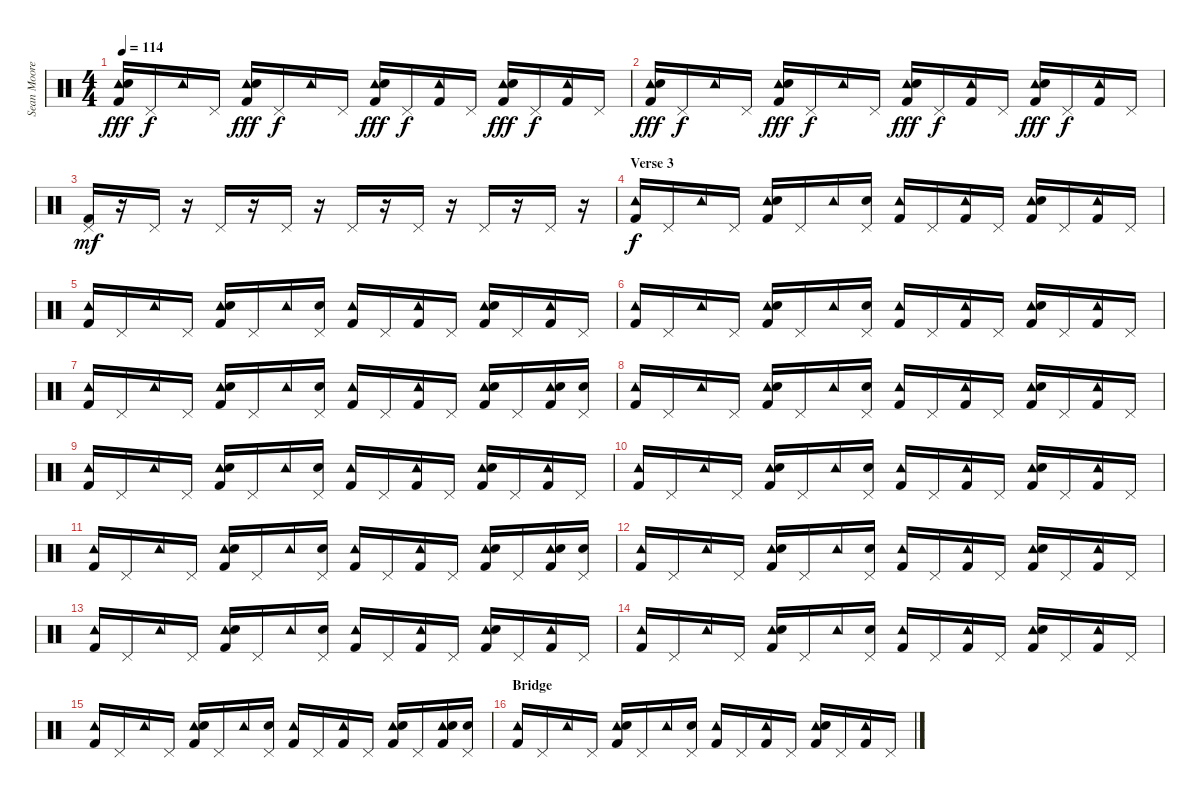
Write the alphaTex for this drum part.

\track ("Sean Moore" "Sean Moore") {instrument percussion}
\staff {score}
\articulation defaults
\ts (4 4)
\tempo 114
\clef neutral
\ks c
("Tambourine (hit)" "Snare (hit) 2" "Kick (hit) 2").16{dy fff} "Pedal Hi-Hat (hit)".16{dy f} "Tambourine (hit)".16 "Pedal Hi-Hat (hit)".16 ("Tambourine (hit)" "Snare (hit) 2" "Kick (hit) 2").16{dy fff} "Pedal Hi-Hat (hit)".16{dy f} "Tambourine (hit)".16 "Pedal Hi-Hat (hit)".16 ("Tambourine (hit)" "Snare (hit) 2" "Kick (hit) 2").16{dy fff} "Pedal Hi-Hat (hit)".16{dy f} ("Tambourine (hit)" "Kick (hit) 2").16 "Pedal Hi-Hat (hit)".16 ("Tambourine (hit)" "Snare (hit) 2" "Kick (hit) 2").16{dy fff} "Pedal Hi-Hat (hit)".16{dy f} ("Tambourine (hit)" "Kick (hit) 2").16 "Pedal Hi-Hat (hit)".16 |
("Tambourine (hit)" "Snare (hit) 2" "Kick (hit) 2").16{dy fff} "Pedal Hi-Hat (hit)".16{dy f} "Tambourine (hit)".16 "Pedal Hi-Hat (hit)".16 ("Tambourine (hit)" "Snare (hit) 2" "Kick (hit) 2").16{dy fff} "Pedal Hi-Hat (hit)".16{dy f} "Tambourine (hit)".16 "Pedal Hi-Hat (hit)".16 ("Tambourine (hit)" "Snare (hit) 2" "Kick (hit) 2").16{dy fff} "Pedal Hi-Hat (hit)".16{dy f} ("Tambourine (hit)" "Kick (hit) 2").16 "Pedal Hi-Hat (hit)".16 ("Tambourine (hit)" "Snare (hit) 2" "Kick (hit) 2").16{dy fff} "Pedal Hi-Hat (hit)".16{dy f} ("Tambourine (hit)" "Kick (hit) 2").16 "Pedal Hi-Hat (hit)".16 |
("Pedal Hi-Hat (hit)" "Kick (hit) 2").16{dy mf} r.16 "Pedal Hi-Hat (hit)".16 r.16 "Pedal Hi-Hat (hit)".16 r.16 "Pedal Hi-Hat (hit)".16 r.16 "Pedal Hi-Hat (hit)".16 r.16 "Pedal Hi-Hat (hit)".16 r.16 "Pedal Hi-Hat (hit)".16 r.16 "Pedal Hi-Hat (hit)".16 r.16 |
\section ("" "Verse 3")
("Tambourine (hit)" "Kick (hit) 2").16{dy f} "Pedal Hi-Hat (hit)".16 "Tambourine (hit)".16 "Pedal Hi-Hat (hit)".16 ("Tambourine (hit)" "Snare (hit) 2" "Kick (hit) 2").16 "Pedal Hi-Hat (hit)".16 "Tambourine (hit)".16 ("Snare (hit) 2" "Pedal Hi-Hat (hit)").16 ("Tambourine (hit)" "Kick (hit) 2").16 "Pedal Hi-Hat (hit)".16 ("Tambourine (hit)" "Kick (hit) 2").16 "Pedal Hi-Hat (hit)".16 ("Tambourine (hit)" "Snare (hit) 2" "Kick (hit) 2").16 "Pedal Hi-Hat (hit)".16 ("Tambourine (hit)" "Kick (hit) 2").16 "Pedal Hi-Hat (hit)".16 |
("Tambourine (hit)" "Kick (hit) 2").16 "Pedal Hi-Hat (hit)".16 "Tambourine (hit)".16 "Pedal Hi-Hat (hit)".16 ("Tambourine (hit)" "Snare (hit) 2" "Kick (hit) 2").16 "Pedal Hi-Hat (hit)".16 "Tambourine (hit)".16 ("Snare (hit) 2" "Pedal Hi-Hat (hit)").16 ("Tambourine (hit)" "Kick (hit) 2").16 "Pedal Hi-Hat (hit)".16 ("Tambourine (hit)" "Kick (hit) 2").16 "Pedal Hi-Hat (hit)".16 ("Tambourine (hit)" "Snare (hit) 2" "Kick (hit) 2").16 "Pedal Hi-Hat (hit)".16 ("Tambourine (hit)" "Kick (hit) 2").16 "Pedal Hi-Hat (hit)".16 |
("Tambourine (hit)" "Kick (hit) 2").16 "Pedal Hi-Hat (hit)".16 "Tambourine (hit)".16 "Pedal Hi-Hat (hit)".16 ("Tambourine (hit)" "Snare (hit) 2" "Kick (hit) 2").16 "Pedal Hi-Hat (hit)".16 "Tambourine (hit)".16 ("Snare (hit) 2" "Pedal Hi-Hat (hit)").16 ("Tambourine (hit)" "Kick (hit) 2").16 "Pedal Hi-Hat (hit)".16 ("Tambourine (hit)" "Kick (hit) 2").16 "Pedal Hi-Hat (hit)".16 ("Tambourine (hit)" "Snare (hit) 2" "Kick (hit) 2").16 "Pedal Hi-Hat (hit)".16 ("Tambourine (hit)" "Kick (hit) 2").16 "Pedal Hi-Hat (hit)".16 |
("Tambourine (hit)" "Kick (hit) 2").16 "Pedal Hi-Hat (hit)".16 "Tambourine (hit)".16 "Pedal Hi-Hat (hit)".16 ("Tambourine (hit)" "Snare (hit) 2" "Kick (hit) 2").16 "Pedal Hi-Hat (hit)".16 "Tambourine (hit)".16 ("Snare (hit) 2" "Pedal Hi-Hat (hit)").16 ("Tambourine (hit)" "Kick (hit) 2").16 "Pedal Hi-Hat (hit)".16 ("Tambourine (hit)" "Kick (hit) 2").16 "Pedal Hi-Hat (hit)".16 ("Tambourine (hit)" "Snare (hit) 2" "Kick (hit) 2").16 "Pedal Hi-Hat (hit)".16 ("Tambourine (hit)" "Snare (hit) 2" "Kick (hit) 2").16 ("Snare (hit) 2" "Pedal Hi-Hat (hit)").16 |
("Tambourine (hit)" "Kick (hit) 2").16 "Pedal Hi-Hat (hit)".16 "Tambourine (hit)".16 "Pedal Hi-Hat (hit)".16 ("Tambourine (hit)" "Snare (hit) 2" "Kick (hit) 2").16 "Pedal Hi-Hat (hit)".16 "Tambourine (hit)".16 ("Snare (hit) 2" "Pedal Hi-Hat (hit)").16 ("Tambourine (hit)" "Kick (hit) 2").16 "Pedal Hi-Hat (hit)".16 ("Tambourine (hit)" "Kick (hit) 2").16 "Pedal Hi-Hat (hit)".16 ("Tambourine (hit)" "Snare (hit) 2" "Kick (hit) 2").16 "Pedal Hi-Hat (hit)".16 ("Tambourine (hit)" "Kick (hit) 2").16 "Pedal Hi-Hat (hit)".16 |
("Tambourine (hit)" "Kick (hit) 2").16 "Pedal Hi-Hat (hit)".16 "Tambourine (hit)".16 "Pedal Hi-Hat (hit)".16 ("Tambourine (hit)" "Snare (hit) 2" "Kick (hit) 2").16 "Pedal Hi-Hat (hit)".16 "Tambourine (hit)".16 ("Snare (hit) 2" "Pedal Hi-Hat (hit)").16 ("Tambourine (hit)" "Kick (hit) 2").16 "Pedal Hi-Hat (hit)".16 ("Tambourine (hit)" "Kick (hit) 2").16 "Pedal Hi-Hat (hit)".16 ("Tambourine (hit)" "Snare (hit) 2" "Kick (hit) 2").16 "Pedal Hi-Hat (hit)".16 ("Tambourine (hit)" "Kick (hit) 2").16 "Pedal Hi-Hat (hit)".16 |
("Tambourine (hit)" "Kick (hit) 2").16 "Pedal Hi-Hat (hit)".16 "Tambourine (hit)".16 "Pedal Hi-Hat (hit)".16 ("Tambourine (hit)" "Snare (hit) 2" "Kick (hit) 2").16 "Pedal Hi-Hat (hit)".16 "Tambourine (hit)".16 ("Snare (hit) 2" "Pedal Hi-Hat (hit)").16 ("Tambourine (hit)" "Kick (hit) 2").16 "Pedal Hi-Hat (hit)".16 ("Tambourine (hit)" "Kick (hit) 2").16 "Pedal Hi-Hat (hit)".16 ("Tambourine (hit)" "Snare (hit) 2" "Kick (hit) 2").16 "Pedal Hi-Hat (hit)".16 ("Tambourine (hit)" "Kick (hit) 2").16 "Pedal Hi-Hat (hit)".16 |
("Tambourine (hit)" "Kick (hit) 2").16 "Pedal Hi-Hat (hit)".16 "Tambourine (hit)".16 "Pedal Hi-Hat (hit)".16 ("Tambourine (hit)" "Snare (hit) 2" "Kick (hit) 2").16 "Pedal Hi-Hat (hit)".16 "Tambourine (hit)".16 ("Snare (hit) 2" "Pedal Hi-Hat (hit)").16 ("Tambourine (hit)" "Kick (hit) 2").16 "Pedal Hi-Hat (hit)".16 ("Tambourine (hit)" "Kick (hit) 2").16 "Pedal Hi-Hat (hit)".16 ("Tambourine (hit)" "Snare (hit) 2" "Kick (hit) 2").16 "Pedal Hi-Hat (hit)".16 ("Tambourine (hit)" "Snare (hit) 2" "Kick (hit) 2").16 ("Snare (hit) 2" "Pedal Hi-Hat (hit)").16 |
("Tambourine (hit)" "Kick (hit) 2").16 "Pedal Hi-Hat (hit)".16 "Tambourine (hit)".16 "Pedal Hi-Hat (hit)".16 ("Tambourine (hit)" "Snare (hit) 2" "Kick (hit) 2").16 "Pedal Hi-Hat (hit)".16 "Tambourine (hit)".16 ("Snare (hit) 2" "Pedal Hi-Hat (hit)").16 ("Tambourine (hit)" "Kick (hit) 2").16 "Pedal Hi-Hat (hit)".16 ("Tambourine (hit)" "Kick (hit) 2").16 "Pedal Hi-Hat (hit)".16 ("Tambourine (hit)" "Snare (hit) 2" "Kick (hit) 2").16 "Pedal Hi-Hat (hit)".16 ("Tambourine (hit)" "Kick (hit) 2").16 "Pedal Hi-Hat (hit)".16 |
("Tambourine (hit)" "Kick (hit) 2").16 "Pedal Hi-Hat (hit)".16 "Tambourine (hit)".16 "Pedal Hi-Hat (hit)".16 ("Tambourine (hit)" "Snare (hit) 2" "Kick (hit) 2").16 "Pedal Hi-Hat (hit)".16 "Tambourine (hit)".16 ("Snare (hit) 2" "Pedal Hi-Hat (hit)").16 ("Tambourine (hit)" "Kick (hit) 2").16 "Pedal Hi-Hat (hit)".16 ("Tambourine (hit)" "Kick (hit) 2").16 "Pedal Hi-Hat (hit)".16 ("Tambourine (hit)" "Snare (hit) 2" "Kick (hit) 2").16 "Pedal Hi-Hat (hit)".16 ("Tambourine (hit)" "Kick (hit) 2").16 "Pedal Hi-Hat (hit)".16 |
("Tambourine (hit)" "Kick (hit) 2").16 "Pedal Hi-Hat (hit)".16 "Tambourine (hit)".16 "Pedal Hi-Hat (hit)".16 ("Tambourine (hit)" "Snare (hit) 2" "Kick (hit) 2").16 "Pedal Hi-Hat (hit)".16 "Tambourine (hit)".16 ("Snare (hit) 2" "Pedal Hi-Hat (hit)").16 ("Tambourine (hit)" "Kick (hit) 2").16 "Pedal Hi-Hat (hit)".16 ("Tambourine (hit)" "Kick (hit) 2").16 "Pedal Hi-Hat (hit)".16 ("Tambourine (hit)" "Snare (hit) 2" "Kick (hit) 2").16 "Pedal Hi-Hat (hit)".16 ("Tambourine (hit)" "Kick (hit) 2").16 "Pedal Hi-Hat (hit)".16 |
("Tambourine (hit)" "Kick (hit) 2").16 "Pedal Hi-Hat (hit)".16 "Tambourine (hit)".16 "Pedal Hi-Hat (hit)".16 ("Tambourine (hit)" "Snare (hit) 2" "Kick (hit) 2").16 "Pedal Hi-Hat (hit)".16 "Tambourine (hit)".16 ("Snare (hit) 2" "Pedal Hi-Hat (hit)").16 ("Tambourine (hit)" "Kick (hit) 2").16 "Pedal Hi-Hat (hit)".16 ("Tambourine (hit)" "Kick (hit) 2").16 "Pedal Hi-Hat (hit)".16 ("Tambourine (hit)" "Snare (hit) 2" "Kick (hit) 2").16 "Pedal Hi-Hat (hit)".16 ("Tambourine (hit)" "Snare (hit) 2" "Kick (hit) 2").16 ("Snare (hit) 2" "Pedal Hi-Hat (hit)").16 |
\section ("" "Bridge")
("Tambourine (hit)" "Kick (hit) 2").16 "Pedal Hi-Hat (hit)".16 "Tambourine (hit)".16 "Pedal Hi-Hat (hit)".16 ("Tambourine (hit)" "Snare (hit) 2" "Kick (hit) 2").16 "Pedal Hi-Hat (hit)".16 "Tambourine (hit)".16 ("Snare (hit) 2" "Pedal Hi-Hat (hit)").16 ("Tambourine (hit)" "Kick (hit) 2").16 "Pedal Hi-Hat (hit)".16 ("Tambourine (hit)" "Kick (hit) 2").16 "Pedal Hi-Hat (hit)".16 ("Tambourine (hit)" "Snare (hit) 2" "Kick (hit) 2").16 "Pedal Hi-Hat (hit)".16 ("Tambourine (hit)" "Kick (hit) 2").16 "Pedal Hi-Hat (hit)".16
